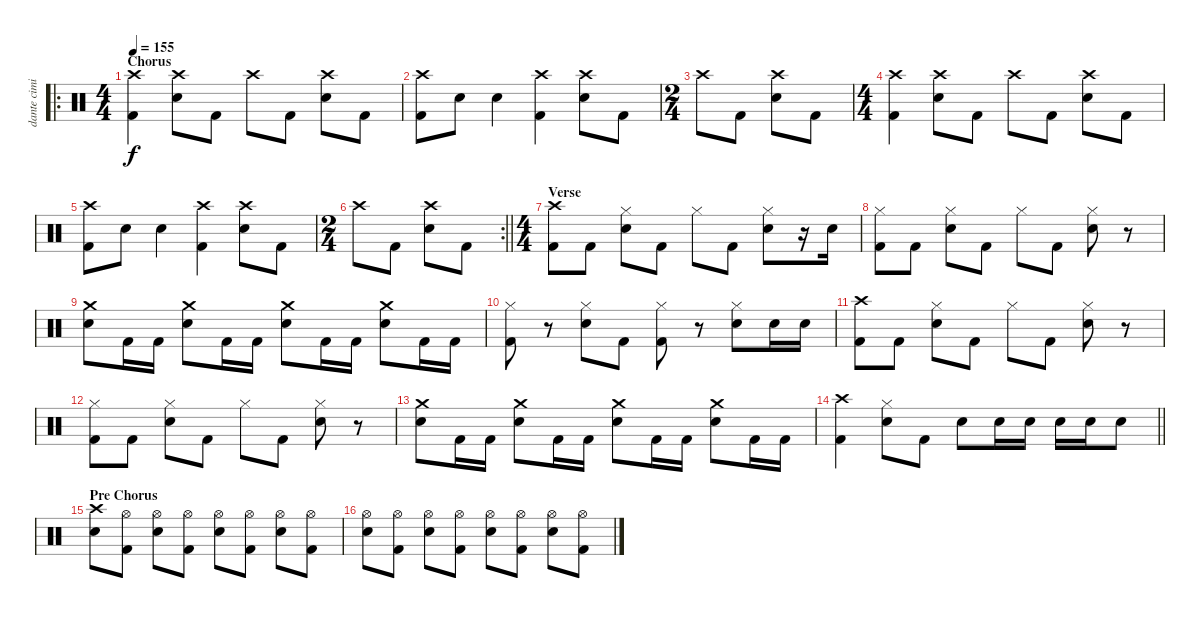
\track ("dante cimino" "dante cimi") {instrument percussion}
\staff {score}
\articulation defaults
\ro
\ts (4 4)
\section ("" "Chorus")
\tempo 155
\clef neutral
\ks c
("Crash high (hit)" "Kick (hit) 2").4{dy f} ("Crash high (hit)" "Electric Snare (hit)").8 "Kick (hit) 2".8 "Crash high (hit)".8 "Kick (hit) 2".8 ("Crash high (hit)" "Electric Snare (hit)").8 "Kick (hit) 2".8 |
("Crash high (hit)" "Kick (hit) 2").8 "Electric Snare (hit)".8 "Electric Snare (hit)".4 ("Crash high (hit)" "Kick (hit) 2").4 ("Crash high (hit)" "Electric Snare (hit)").8 "Kick (hit) 2".8 |
\ts (2 4)
"Crash high (hit)".8 "Kick (hit) 2".8 ("Crash high (hit)" "Electric Snare (hit)").8 "Kick (hit) 2".8 |
\ts (4 4)
("Crash high (hit)" "Kick (hit) 2").4 ("Crash high (hit)" "Electric Snare (hit)").8 "Kick (hit) 2".8 "Crash high (hit)".8 "Kick (hit) 2".8 ("Crash high (hit)" "Electric Snare (hit)").8 "Kick (hit) 2".8 |
("Crash high (hit)" "Kick (hit) 2").8 "Electric Snare (hit)".8 "Electric Snare (hit)".4 ("Crash high (hit)" "Kick (hit) 2").4 ("Crash high (hit)" "Electric Snare (hit)").8 "Kick (hit) 2".8 |
\rc 2
\ts (2 4)
\barLineRight lightlight "Crash high (hit)".8 "Kick (hit) 2".8
("Crash high (hit)" "Electric Snare (hit)").8 "Kick (hit) 2".8 |
\ts (4 4)
\section ("" "Verse")
("Crash high (hit)" "Kick (hit) 2").8 "Kick (hit) 2".8 ("Hi-Hat (closed)" "Electric Snare (hit)").8 "Kick (hit) 2".8 "Hi-Hat (closed)".8 "Kick (hit) 2".8 ("Hi-Hat (closed)" "Electric Snare (hit)").8 r.16 "Electric Snare (hit)".16 |
("Hi-Hat (closed)" "Kick (hit) 2").8 "Kick (hit) 2".8 ("Hi-Hat (closed)" "Electric Snare (hit)").8 "Kick (hit) 2".8 "Hi-Hat (closed)".8 "Kick (hit) 2".8 ("Hi-Hat (closed)" "Electric Snare (hit)").8 r.8 |
("Crash medium (hit)" "Electric Snare (hit)").8 "Kick (hit) 2".16 "Kick (hit) 2".16 ("Crash medium (hit)" "Electric Snare (hit)").8 "Kick (hit) 2".16 "Kick (hit) 2".16 ("Crash medium (hit)" "Electric Snare (hit)").8 "Kick (hit) 2".16 "Kick (hit) 2".16 ("Crash medium (hit)" "Electric Snare (hit)").8 "Kick (hit) 2".16 "Kick (hit) 2".16 |
("Hi-Hat (closed)" "Kick (hit) 2").8 r.8 ("Hi-Hat (closed)" "Electric Snare (hit)").8 "Kick (hit) 2".8 ("Hi-Hat (closed)" "Kick (hit) 2").8 r.8 ("Hi-Hat (closed)" "Electric Snare (hit)").8 "Electric Snare (hit)".16 "Electric Snare (hit)".16 |
("Crash high (hit)" "Kick (hit) 2").8 "Kick (hit) 2".8 ("Hi-Hat (closed)" "Electric Snare (hit)").8 "Kick (hit) 2".8 "Hi-Hat (closed)".8 "Kick (hit) 2".8 ("Hi-Hat (closed)" "Electric Snare (hit)").8 r.8 |
("Hi-Hat (closed)" "Kick (hit) 2").8 "Kick (hit) 2".8 ("Hi-Hat (closed)" "Electric Snare (hit)").8 "Kick (hit) 2".8 "Hi-Hat (closed)".8 "Kick (hit) 2".8 ("Hi-Hat (closed)" "Electric Snare (hit)").8 r.8 |
("Crash medium (hit)" "Electric Snare (hit)").8 "Kick (hit) 2".16 "Kick (hit) 2".16 ("Crash medium (hit)" "Electric Snare (hit)").8 "Kick (hit) 2".16 "Kick (hit) 2".16 ("Crash medium (hit)" "Electric Snare (hit)").8 "Kick (hit) 2".16 "Kick (hit) 2".16 ("Crash medium (hit)" "Electric Snare (hit)").8 "Kick (hit) 2".16 "Kick (hit) 2".16 |
\barLineRight lightlight
("Crash high (hit)" "Kick (hit) 2").4 ("Hi-Hat (closed)" "Electric Snare (hit)").8 "Kick (hit) 2".8 "Electric Snare (hit)".8 "Electric Snare (hit)".16 "Electric Snare (hit)".16 "Electric Snare (hit)".16 "Electric Snare (hit)".16 "Electric Snare (hit)".8 |
\section ("" "Pre Chorus")
("Crash high (hit)" "Electric Snare (hit)").8 ("Hi-Hat (open)" "Kick (hit) 2").8 ("Hi-Hat (open)" "Electric Snare (hit)").8 ("Hi-Hat (open)" "Kick (hit) 2").8 ("Hi-Hat (open)" "Electric Snare (hit)").8 ("Hi-Hat (open)" "Kick (hit) 2").8 ("Hi-Hat (open)" "Electric Snare (hit)").8 ("Hi-Hat (open)" "Kick (hit) 2").8 |
("Hi-Hat (open)" "Electric Snare (hit)").8 ("Hi-Hat (open)" "Kick (hit) 2").8 ("Hi-Hat (open)" "Electric Snare (hit)").8 ("Hi-Hat (open)" "Kick (hit) 2").8 ("Hi-Hat (open)" "Electric Snare (hit)").8 ("Hi-Hat (open)" "Kick (hit) 2").8 ("Hi-Hat (open)" "Electric Snare (hit)").8 ("Hi-Hat (open)" "Kick (hit) 2").8
